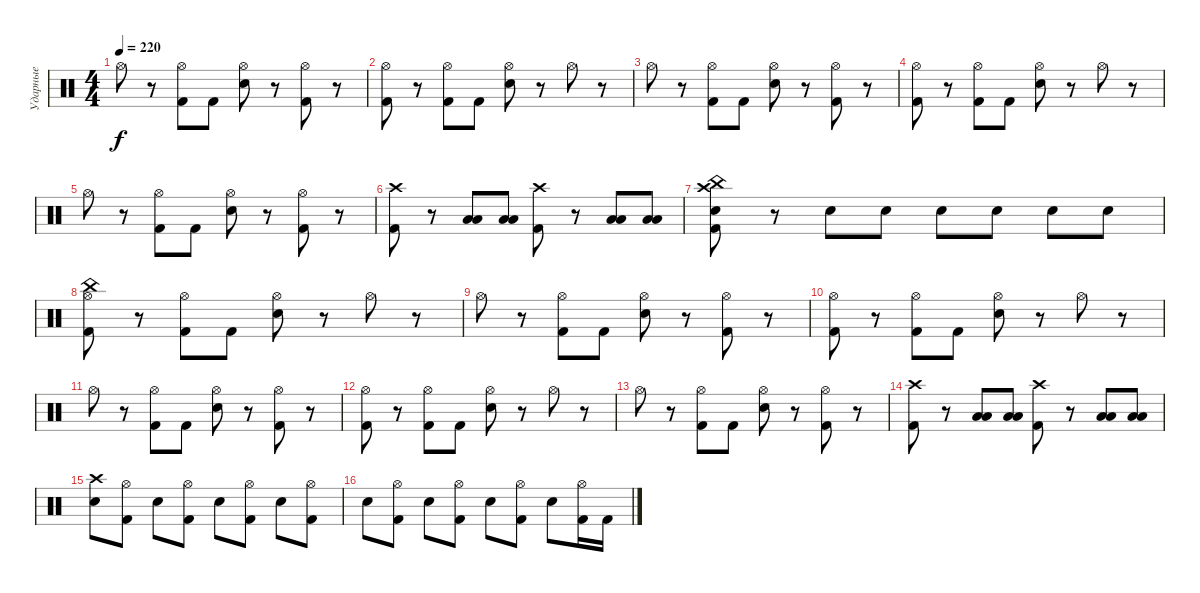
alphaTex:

\track ("Ударные" "Ударные") {instrument percussion}
\staff {score}
\articulation defaults
\ts (4 4)
\tempo 220
\clef neutral
\ks c "Hi-Hat (open)".8{dy f}
r.8 ("Kick (hit) 2" "Hi-Hat (open)").8 "Kick (hit) 2".8 ("Electric Snare (hit)" "Hi-Hat (open)").8 r.8 ("Kick (hit) 2" "Hi-Hat (open)").8 r.8 |
("Kick (hit) 2" "Hi-Hat (open)").8 r.8 ("Kick (hit) 2" "Hi-Hat (open)").8 "Kick (hit) 2".8 ("Electric Snare (hit)" "Hi-Hat (open)").8 r.8 "Hi-Hat (open)".8 r.8 |
"Hi-Hat (open)".8 r.8 ("Kick (hit) 2" "Hi-Hat (open)").8 "Kick (hit) 2".8 ("Electric Snare (hit)" "Hi-Hat (open)").8 r.8 ("Kick (hit) 2" "Hi-Hat (open)").8 r.8 |
("Kick (hit) 2" "Hi-Hat (open)").8 r.8 ("Kick (hit) 2" "Hi-Hat (open)").8 "Kick (hit) 2".8 ("Electric Snare (hit)" "Hi-Hat (open)").8 r.8 "Hi-Hat (open)".8 r.8 |
"Hi-Hat (open)".8 r.8 ("Kick (hit) 2" "Hi-Hat (open)").8 "Kick (hit) 2".8 ("Electric Snare (hit)" "Hi-Hat (open)").8 r.8 ("Kick (hit) 2" "Hi-Hat (open)").8 r.8 |
("Kick (hit) 2" "Crash high (hit)").8 r.8 ("Low Tom (hit)" "Low Floor Tom (hit)").8 ("Low Tom (hit)" "Low Floor Tom (hit)").8 ("Kick (hit) 2" "Crash high (hit)").8 r.8 ("Low Floor Tom (hit)" "Low Tom (hit)").8 ("Low Floor Tom (hit)" "Low Tom (hit)").8 |
("Kick (hit) 2" "Electric Snare (hit)" "Crash high (hit)" "China (hit)").8 r.8 "Electric Snare (hit)".8 "Electric Snare (hit)".8 "Snare (hit) 2".8 "Snare (hit) 2".8 "Snare (hit) 2".8 "Snare (hit) 2".8 |
("Kick (hit) 2" "Hi-Hat (open)" "China (hit)").8 r.8 ("Kick (hit) 2" "Hi-Hat (open)").8 "Kick (hit) 2".8 ("Electric Snare (hit)" "Hi-Hat (open)").8 r.8 "Hi-Hat (open)".8 r.8 |
"Hi-Hat (open)".8 r.8 ("Kick (hit) 2" "Hi-Hat (open)").8 "Kick (hit) 2".8 ("Electric Snare (hit)" "Hi-Hat (open)").8 r.8 ("Kick (hit) 2" "Hi-Hat (open)").8 r.8 |
("Kick (hit) 2" "Hi-Hat (open)").8 r.8 ("Kick (hit) 2" "Hi-Hat (open)").8 "Kick (hit) 2".8 ("Electric Snare (hit)" "Hi-Hat (open)").8 r.8 "Hi-Hat (open)".8 r.8 |
"Hi-Hat (open)".8 r.8 ("Kick (hit) 2" "Hi-Hat (open)").8 "Kick (hit) 2".8 ("Electric Snare (hit)" "Hi-Hat (open)").8 r.8 ("Kick (hit) 2" "Hi-Hat (open)").8 r.8 |
("Kick (hit) 2" "Hi-Hat (open)").8 r.8 ("Kick (hit) 2" "Hi-Hat (open)").8 "Kick (hit) 2".8 ("Electric Snare (hit)" "Hi-Hat (open)").8 r.8 "Hi-Hat (open)".8 r.8 |
"Hi-Hat (open)".8 r.8 ("Kick (hit) 2" "Hi-Hat (open)").8 "Kick (hit) 2".8 ("Electric Snare (hit)" "Hi-Hat (open)").8 r.8 ("Kick (hit) 2" "Hi-Hat (open)").8 r.8 |
("Kick (hit) 2" "Crash high (hit)").8 r.8 ("Low Tom (hit)" "Low Floor Tom (hit)").8 ("Low Tom (hit)" "Low Floor Tom (hit)").8 ("Kick (hit) 2" "Crash high (hit)").8 r.8 ("Low Floor Tom (hit)" "Low Tom (hit)").8 ("Low Floor Tom (hit)" "Low Tom (hit)").8 |
("Electric Snare (hit)" "Crash high (hit)").8 ("Kick (hit) 2" "Hi-Hat (open)").8 "Electric Snare (hit)".8 ("Kick (hit) 2" "Hi-Hat (open)").8 "Electric Snare (hit)".8 ("Kick (hit) 2" "Hi-Hat (open)").8 "Electric Snare (hit)".8 ("Kick (hit) 2" "Hi-Hat (open)").8 |
"Electric Snare (hit)".8 ("Kick (hit) 2" "Hi-Hat (open)").8 "Electric Snare (hit)".8 ("Kick (hit) 2" "Hi-Hat (open)").8 "Electric Snare (hit)".8 ("Kick (hit) 2" "Hi-Hat (open)").8 "Electric Snare (hit)".8 ("Kick (hit) 2" "Hi-Hat (open)").16 "Kick (hit) 2".16
